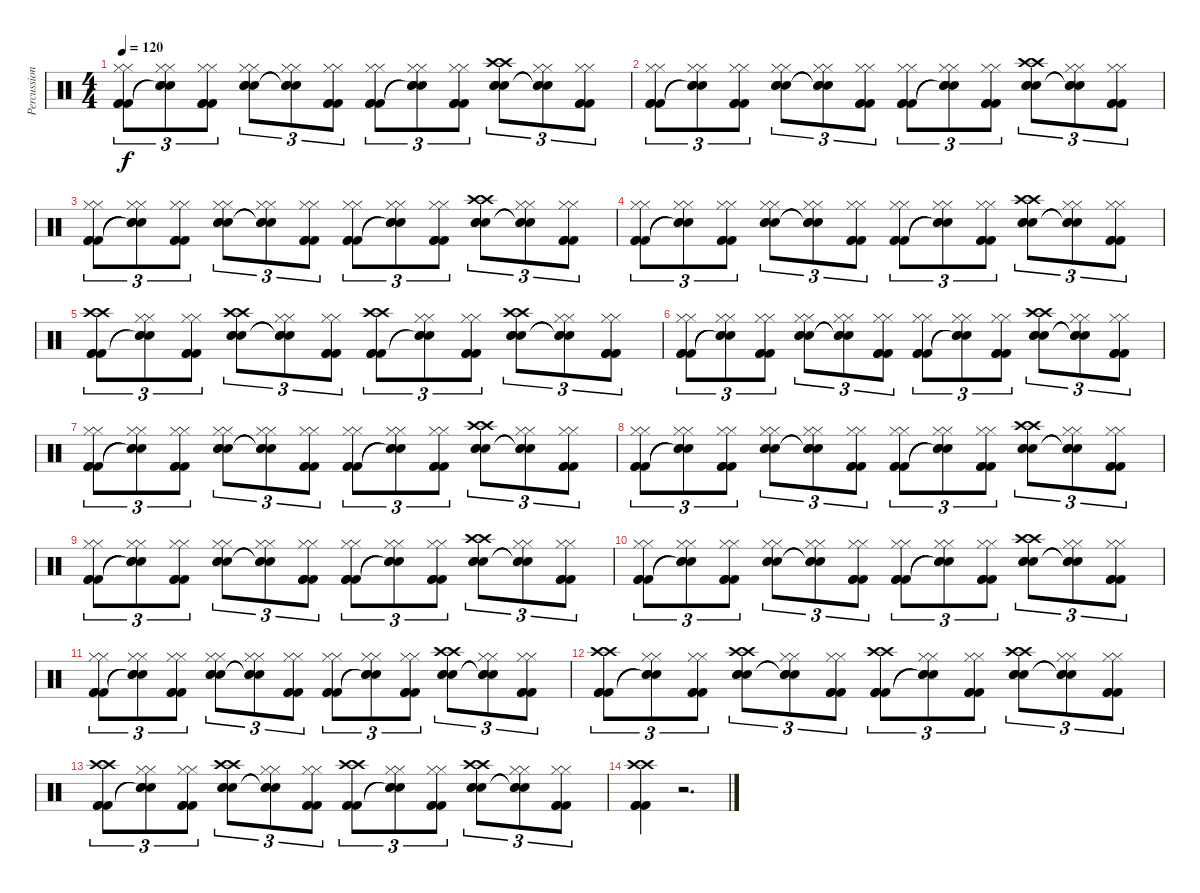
\track ("Percussion" "Percussion") {instrument percussion}
\staff {score}
\articulation defaults
\ts (4 4)
\tempo 120
\clef neutral
\ks c
("Hi-Hat (closed)" "Hi-Hat (closed)" "Kick (hit) 2" "Kick (hit) 2" "Kick (hit) 2").8{tu (3 2) dy f} ("Hi-Hat (closed)" "Hi-Hat (closed)" "Snare (hit)"{t} "Snare (hit)"{t} "Snare (hit)"{t}).8{tu (3 2)} ("Hi-Hat (closed)" "Hi-Hat (closed)" "Kick (hit) 2" "Kick (hit) 2" "Kick (hit) 2").8{tu (3 2)} ("Hi-Hat (closed)" "Hi-Hat (closed)" "Snare (hit) 2" "Snare (hit) 2" "Snare (hit) 2").8{tu (3 2)} ("Hi-Hat (closed)" "Hi-Hat (closed)" "Snare (hit)"{t} "Snare (hit)"{t} "Snare (hit)"{t}).8{tu (3 2)} ("Hi-Hat (closed)" "Hi-Hat (closed)" "Kick (hit) 2" "Kick (hit) 2" "Kick (hit) 2").8{tu (3 2)} ("Hi-Hat (closed)" "Hi-Hat (closed)" "Kick (hit) 2" "Kick (hit) 2" "Kick (hit) 2").8{tu (3 2)} ("Hi-Hat (closed)" "Hi-Hat (closed)" "Snare (hit)"{t} "Snare (hit)"{t} "Snare (hit)"{t}).8{tu (3 2)} ("Hi-Hat (closed)" "Hi-Hat (closed)" "Kick (hit) 2" "Kick (hit) 2" "Kick (hit) 2").8{tu (3 2)} ("Crash high (hit)" "Crash high (hit)" "Snare (hit) 2" "Snare (hit) 2" "Snare (hit) 2").8{tu (3 2)} ("Hi-Hat (closed)" "Hi-Hat (closed)" "Snare (hit)"{t} "Snare (hit)"{t} "Snare (hit)"{t}).8{tu (3 2)} ("Hi-Hat (closed)" "Hi-Hat (closed)" "Kick (hit) 2" "Kick (hit) 2" "Kick (hit) 2").8{tu (3 2)} |
("Hi-Hat (closed)" "Hi-Hat (closed)" "Kick (hit) 2" "Kick (hit) 2" "Kick (hit) 2").8{tu (3 2)} ("Hi-Hat (closed)" "Hi-Hat (closed)" "Snare (hit)"{t} "Snare (hit)"{t} "Snare (hit)"{t}).8{tu (3 2)} ("Hi-Hat (closed)" "Hi-Hat (closed)" "Kick (hit) 2" "Kick (hit) 2" "Kick (hit) 2").8{tu (3 2)} ("Hi-Hat (closed)" "Hi-Hat (closed)" "Snare (hit) 2" "Snare (hit) 2" "Snare (hit) 2").8{tu (3 2)} ("Hi-Hat (closed)" "Hi-Hat (closed)" "Snare (hit)"{t} "Snare (hit)"{t} "Snare (hit)"{t}).8{tu (3 2)} ("Hi-Hat (closed)" "Hi-Hat (closed)" "Kick (hit) 2" "Kick (hit) 2" "Kick (hit) 2").8{tu (3 2)} ("Hi-Hat (closed)" "Hi-Hat (closed)" "Kick (hit) 2" "Kick (hit) 2" "Kick (hit) 2").8{tu (3 2)} ("Hi-Hat (closed)" "Hi-Hat (closed)" "Snare (hit)"{t} "Snare (hit)"{t} "Snare (hit)"{t}).8{tu (3 2)} ("Hi-Hat (closed)" "Hi-Hat (closed)" "Kick (hit) 2" "Kick (hit) 2" "Kick (hit) 2").8{tu (3 2)} ("Crash high (hit)" "Crash high (hit)" "Snare (hit) 2" "Snare (hit) 2" "Snare (hit) 2").8{tu (3 2)} ("Hi-Hat (closed)" "Hi-Hat (closed)" "Snare (hit)"{t} "Snare (hit)"{t} "Snare (hit)"{t}).8{tu (3 2)} ("Hi-Hat (closed)" "Hi-Hat (closed)" "Kick (hit) 2" "Kick (hit) 2" "Kick (hit) 2").8{tu (3 2)} |
("Hi-Hat (closed)" "Hi-Hat (closed)" "Kick (hit) 2" "Kick (hit) 2" "Kick (hit) 2").8{tu (3 2)} ("Hi-Hat (closed)" "Hi-Hat (closed)" "Snare (hit)"{t} "Snare (hit)"{t} "Snare (hit)"{t}).8{tu (3 2)} ("Hi-Hat (closed)" "Hi-Hat (closed)" "Kick (hit) 2" "Kick (hit) 2" "Kick (hit) 2").8{tu (3 2)} ("Hi-Hat (closed)" "Hi-Hat (closed)" "Snare (hit) 2" "Snare (hit) 2" "Snare (hit) 2").8{tu (3 2)} ("Hi-Hat (closed)" "Hi-Hat (closed)" "Snare (hit)"{t} "Snare (hit)"{t} "Snare (hit)"{t}).8{tu (3 2)} ("Hi-Hat (closed)" "Hi-Hat (closed)" "Kick (hit) 2" "Kick (hit) 2" "Kick (hit) 2").8{tu (3 2)} ("Hi-Hat (closed)" "Hi-Hat (closed)" "Kick (hit) 2" "Kick (hit) 2" "Kick (hit) 2").8{tu (3 2)} ("Hi-Hat (closed)" "Hi-Hat (closed)" "Snare (hit)"{t} "Snare (hit)"{t} "Snare (hit)"{t}).8{tu (3 2)} ("Hi-Hat (closed)" "Hi-Hat (closed)" "Kick (hit) 2" "Kick (hit) 2" "Kick (hit) 2").8{tu (3 2)} ("Crash high (hit)" "Crash high (hit)" "Snare (hit) 2" "Snare (hit) 2" "Snare (hit) 2").8{tu (3 2)} ("Hi-Hat (closed)" "Hi-Hat (closed)" "Snare (hit)"{t} "Snare (hit)"{t} "Snare (hit)"{t}).8{tu (3 2)} ("Hi-Hat (closed)" "Hi-Hat (closed)" "Kick (hit) 2" "Kick (hit) 2" "Kick (hit) 2").8{tu (3 2)} |
("Hi-Hat (closed)" "Hi-Hat (closed)" "Kick (hit) 2" "Kick (hit) 2" "Kick (hit) 2").8{tu (3 2)} ("Hi-Hat (closed)" "Hi-Hat (closed)" "Snare (hit)"{t} "Snare (hit)"{t} "Snare (hit)"{t}).8{tu (3 2)} ("Hi-Hat (closed)" "Hi-Hat (closed)" "Kick (hit) 2" "Kick (hit) 2" "Kick (hit) 2").8{tu (3 2)} ("Hi-Hat (closed)" "Hi-Hat (closed)" "Snare (hit) 2" "Snare (hit) 2" "Snare (hit) 2").8{tu (3 2)} ("Hi-Hat (closed)" "Hi-Hat (closed)" "Snare (hit)"{t} "Snare (hit)"{t} "Snare (hit)"{t}).8{tu (3 2)} ("Hi-Hat (closed)" "Hi-Hat (closed)" "Kick (hit) 2" "Kick (hit) 2" "Kick (hit) 2").8{tu (3 2)} ("Hi-Hat (closed)" "Hi-Hat (closed)" "Kick (hit) 2" "Kick (hit) 2" "Kick (hit) 2").8{tu (3 2)} ("Hi-Hat (closed)" "Hi-Hat (closed)" "Snare (hit)"{t} "Snare (hit)"{t} "Snare (hit)"{t}).8{tu (3 2)} ("Hi-Hat (closed)" "Hi-Hat (closed)" "Kick (hit) 2" "Kick (hit) 2" "Kick (hit) 2").8{tu (3 2)} ("Crash high (hit)" "Crash high (hit)" "Snare (hit) 2" "Snare (hit) 2" "Snare (hit) 2").8{tu (3 2)} ("Hi-Hat (closed)" "Hi-Hat (closed)" "Snare (hit)"{t} "Snare (hit)"{t} "Snare (hit)"{t}).8{tu (3 2)} ("Hi-Hat (closed)" "Hi-Hat (closed)" "Kick (hit) 2" "Kick (hit) 2" "Kick (hit) 2").8{tu (3 2)} |
("Crash high (hit)" "Crash high (hit)" "Kick (hit) 2" "Kick (hit) 2" "Kick (hit) 2").8{tu (3 2)} ("Hi-Hat (closed)" "Hi-Hat (closed)" "Snare (hit)"{t} "Snare (hit)"{t} "Snare (hit)"{t}).8{tu (3 2)} ("Hi-Hat (closed)" "Hi-Hat (closed)" "Kick (hit) 2" "Kick (hit) 2" "Kick (hit) 2").8{tu (3 2)} ("Crash high (hit)" "Crash high (hit)" "Snare (hit) 2" "Snare (hit) 2" "Snare (hit) 2").8{tu (3 2)} ("Hi-Hat (closed)" "Hi-Hat (closed)" "Snare (hit)"{t} "Snare (hit)"{t} "Snare (hit)"{t}).8{tu (3 2)} ("Hi-Hat (closed)" "Hi-Hat (closed)" "Kick (hit) 2" "Kick (hit) 2" "Kick (hit) 2").8{tu (3 2)} ("Crash high (hit)" "Crash high (hit)" "Kick (hit) 2" "Kick (hit) 2" "Kick (hit) 2").8{tu (3 2)} ("Hi-Hat (closed)" "Hi-Hat (closed)" "Snare (hit)"{t} "Snare (hit)"{t} "Snare (hit)"{t}).8{tu (3 2)} ("Hi-Hat (closed)" "Hi-Hat (closed)" "Kick (hit) 2" "Kick (hit) 2" "Kick (hit) 2").8{tu (3 2)} ("Crash high (hit)" "Crash high (hit)" "Snare (hit) 2" "Snare (hit) 2" "Snare (hit) 2").8{tu (3 2)} ("Hi-Hat (closed)" "Hi-Hat (closed)" "Snare (hit)"{t} "Snare (hit)"{t} "Snare (hit)"{t}).8{tu (3 2)} ("Hi-Hat (closed)" "Hi-Hat (closed)" "Kick (hit) 2" "Kick (hit) 2" "Kick (hit) 2").8{tu (3 2)} |
("Hi-Hat (closed)" "Hi-Hat (closed)" "Kick (hit) 2" "Kick (hit) 2" "Kick (hit) 2").8{tu (3 2)} ("Hi-Hat (closed)" "Hi-Hat (closed)" "Snare (hit)"{t} "Snare (hit)"{t} "Snare (hit)"{t}).8{tu (3 2)} ("Hi-Hat (closed)" "Hi-Hat (closed)" "Kick (hit) 2" "Kick (hit) 2" "Kick (hit) 2").8{tu (3 2)} ("Hi-Hat (closed)" "Hi-Hat (closed)" "Snare (hit) 2" "Snare (hit) 2" "Snare (hit) 2").8{tu (3 2)} ("Hi-Hat (closed)" "Hi-Hat (closed)" "Snare (hit)"{t} "Snare (hit)"{t} "Snare (hit)"{t}).8{tu (3 2)} ("Hi-Hat (closed)" "Hi-Hat (closed)" "Kick (hit) 2" "Kick (hit) 2" "Kick (hit) 2").8{tu (3 2)} ("Hi-Hat (closed)" "Hi-Hat (closed)" "Kick (hit) 2" "Kick (hit) 2" "Kick (hit) 2").8{tu (3 2)} ("Hi-Hat (closed)" "Hi-Hat (closed)" "Snare (hit)"{t} "Snare (hit)"{t} "Snare (hit)"{t}).8{tu (3 2)} ("Hi-Hat (closed)" "Hi-Hat (closed)" "Kick (hit) 2" "Kick (hit) 2" "Kick (hit) 2").8{tu (3 2)} ("Crash high (hit)" "Crash high (hit)" "Snare (hit) 2" "Snare (hit) 2" "Snare (hit) 2").8{tu (3 2)} ("Hi-Hat (closed)" "Hi-Hat (closed)" "Snare (hit)"{t} "Snare (hit)"{t} "Snare (hit)"{t}).8{tu (3 2)} ("Hi-Hat (closed)" "Hi-Hat (closed)" "Kick (hit) 2" "Kick (hit) 2" "Kick (hit) 2").8{tu (3 2)} |
("Hi-Hat (closed)" "Hi-Hat (closed)" "Kick (hit) 2" "Kick (hit) 2" "Kick (hit) 2").8{tu (3 2)} ("Hi-Hat (closed)" "Hi-Hat (closed)" "Snare (hit)"{t} "Snare (hit)"{t} "Snare (hit)"{t}).8{tu (3 2)} ("Hi-Hat (closed)" "Hi-Hat (closed)" "Kick (hit) 2" "Kick (hit) 2" "Kick (hit) 2").8{tu (3 2)} ("Hi-Hat (closed)" "Hi-Hat (closed)" "Snare (hit) 2" "Snare (hit) 2" "Snare (hit) 2").8{tu (3 2)} ("Hi-Hat (closed)" "Hi-Hat (closed)" "Snare (hit)"{t} "Snare (hit)"{t} "Snare (hit)"{t}).8{tu (3 2)} ("Hi-Hat (closed)" "Hi-Hat (closed)" "Kick (hit) 2" "Kick (hit) 2" "Kick (hit) 2").8{tu (3 2)} ("Hi-Hat (closed)" "Hi-Hat (closed)" "Kick (hit) 2" "Kick (hit) 2" "Kick (hit) 2").8{tu (3 2)} ("Hi-Hat (closed)" "Hi-Hat (closed)" "Snare (hit)"{t} "Snare (hit)"{t} "Snare (hit)"{t}).8{tu (3 2)} ("Hi-Hat (closed)" "Hi-Hat (closed)" "Kick (hit) 2" "Kick (hit) 2" "Kick (hit) 2").8{tu (3 2)} ("Crash high (hit)" "Crash high (hit)" "Snare (hit) 2" "Snare (hit) 2" "Snare (hit) 2").8{tu (3 2)} ("Hi-Hat (closed)" "Hi-Hat (closed)" "Snare (hit)"{t} "Snare (hit)"{t} "Snare (hit)"{t}).8{tu (3 2)} ("Hi-Hat (closed)" "Hi-Hat (closed)" "Kick (hit) 2" "Kick (hit) 2" "Kick (hit) 2").8{tu (3 2)} |
("Hi-Hat (closed)" "Hi-Hat (closed)" "Kick (hit) 2" "Kick (hit) 2" "Kick (hit) 2").8{tu (3 2)} ("Hi-Hat (closed)" "Hi-Hat (closed)" "Snare (hit)"{t} "Snare (hit)"{t} "Snare (hit)"{t}).8{tu (3 2)} ("Hi-Hat (closed)" "Hi-Hat (closed)" "Kick (hit) 2" "Kick (hit) 2" "Kick (hit) 2").8{tu (3 2)} ("Hi-Hat (closed)" "Hi-Hat (closed)" "Snare (hit) 2" "Snare (hit) 2" "Snare (hit) 2").8{tu (3 2)} ("Hi-Hat (closed)" "Hi-Hat (closed)" "Snare (hit)"{t} "Snare (hit)"{t} "Snare (hit)"{t}).8{tu (3 2)} ("Hi-Hat (closed)" "Hi-Hat (closed)" "Kick (hit) 2" "Kick (hit) 2" "Kick (hit) 2").8{tu (3 2)} ("Hi-Hat (closed)" "Hi-Hat (closed)" "Kick (hit) 2" "Kick (hit) 2" "Kick (hit) 2").8{tu (3 2)} ("Hi-Hat (closed)" "Hi-Hat (closed)" "Snare (hit)"{t} "Snare (hit)"{t} "Snare (hit)"{t}).8{tu (3 2)} ("Hi-Hat (closed)" "Hi-Hat (closed)" "Kick (hit) 2" "Kick (hit) 2" "Kick (hit) 2").8{tu (3 2)} ("Crash high (hit)" "Crash high (hit)" "Snare (hit) 2" "Snare (hit) 2" "Snare (hit) 2").8{tu (3 2)} ("Hi-Hat (closed)" "Hi-Hat (closed)" "Snare (hit)"{t} "Snare (hit)"{t} "Snare (hit)"{t}).8{tu (3 2)} ("Hi-Hat (closed)" "Hi-Hat (closed)" "Kick (hit) 2" "Kick (hit) 2" "Kick (hit) 2").8{tu (3 2)} |
("Hi-Hat (closed)" "Hi-Hat (closed)" "Kick (hit) 2" "Kick (hit) 2" "Kick (hit) 2").8{tu (3 2)} ("Hi-Hat (closed)" "Hi-Hat (closed)" "Snare (hit)"{t} "Snare (hit)"{t} "Snare (hit)"{t}).8{tu (3 2)} ("Hi-Hat (closed)" "Hi-Hat (closed)" "Kick (hit) 2" "Kick (hit) 2" "Kick (hit) 2").8{tu (3 2)} ("Hi-Hat (closed)" "Hi-Hat (closed)" "Snare (hit) 2" "Snare (hit) 2" "Snare (hit) 2").8{tu (3 2)} ("Hi-Hat (closed)" "Hi-Hat (closed)" "Snare (hit)"{t} "Snare (hit)"{t} "Snare (hit)"{t}).8{tu (3 2)} ("Hi-Hat (closed)" "Hi-Hat (closed)" "Kick (hit) 2" "Kick (hit) 2" "Kick (hit) 2").8{tu (3 2)} ("Hi-Hat (closed)" "Hi-Hat (closed)" "Kick (hit) 2" "Kick (hit) 2" "Kick (hit) 2").8{tu (3 2)} ("Hi-Hat (closed)" "Hi-Hat (closed)" "Snare (hit)"{t} "Snare (hit)"{t} "Snare (hit)"{t}).8{tu (3 2)} ("Hi-Hat (closed)" "Hi-Hat (closed)" "Kick (hit) 2" "Kick (hit) 2" "Kick (hit) 2").8{tu (3 2)} ("Crash high (hit)" "Crash high (hit)" "Snare (hit) 2" "Snare (hit) 2" "Snare (hit) 2").8{tu (3 2)} ("Hi-Hat (closed)" "Hi-Hat (closed)" "Snare (hit)"{t} "Snare (hit)"{t} "Snare (hit)"{t}).8{tu (3 2)} ("Hi-Hat (closed)" "Hi-Hat (closed)" "Kick (hit) 2" "Kick (hit) 2" "Kick (hit) 2").8{tu (3 2)} |
("Hi-Hat (closed)" "Hi-Hat (closed)" "Kick (hit) 2" "Kick (hit) 2" "Kick (hit) 2").8{tu (3 2)} ("Hi-Hat (closed)" "Hi-Hat (closed)" "Snare (hit)"{t} "Snare (hit)"{t} "Snare (hit)"{t}).8{tu (3 2)} ("Hi-Hat (closed)" "Hi-Hat (closed)" "Kick (hit) 2" "Kick (hit) 2" "Kick (hit) 2").8{tu (3 2)} ("Hi-Hat (closed)" "Hi-Hat (closed)" "Snare (hit) 2" "Snare (hit) 2" "Snare (hit) 2").8{tu (3 2)} ("Hi-Hat (closed)" "Hi-Hat (closed)" "Snare (hit)"{t} "Snare (hit)"{t} "Snare (hit)"{t}).8{tu (3 2)} ("Hi-Hat (closed)" "Hi-Hat (closed)" "Kick (hit) 2" "Kick (hit) 2" "Kick (hit) 2").8{tu (3 2)} ("Hi-Hat (closed)" "Hi-Hat (closed)" "Kick (hit) 2" "Kick (hit) 2" "Kick (hit) 2").8{tu (3 2)} ("Hi-Hat (closed)" "Hi-Hat (closed)" "Snare (hit)"{t} "Snare (hit)"{t} "Snare (hit)"{t}).8{tu (3 2)} ("Hi-Hat (closed)" "Hi-Hat (closed)" "Kick (hit) 2" "Kick (hit) 2" "Kick (hit) 2").8{tu (3 2)} ("Crash high (hit)" "Crash high (hit)" "Snare (hit) 2" "Snare (hit) 2" "Snare (hit) 2").8{tu (3 2)} ("Hi-Hat (closed)" "Hi-Hat (closed)" "Snare (hit)"{t} "Snare (hit)"{t} "Snare (hit)"{t}).8{tu (3 2)} ("Hi-Hat (closed)" "Hi-Hat (closed)" "Kick (hit) 2" "Kick (hit) 2" "Kick (hit) 2").8{tu (3 2)} |
("Hi-Hat (closed)" "Hi-Hat (closed)" "Kick (hit) 2" "Kick (hit) 2" "Kick (hit) 2").8{tu (3 2)} ("Hi-Hat (closed)" "Hi-Hat (closed)" "Snare (hit)"{t} "Snare (hit)"{t} "Snare (hit)"{t}).8{tu (3 2)} ("Hi-Hat (closed)" "Hi-Hat (closed)" "Kick (hit) 2" "Kick (hit) 2" "Kick (hit) 2").8{tu (3 2)} ("Hi-Hat (closed)" "Hi-Hat (closed)" "Snare (hit) 2" "Snare (hit) 2" "Snare (hit) 2").8{tu (3 2)} ("Hi-Hat (closed)" "Hi-Hat (closed)" "Snare (hit)"{t} "Snare (hit)"{t} "Snare (hit)"{t}).8{tu (3 2)} ("Hi-Hat (closed)" "Hi-Hat (closed)" "Kick (hit) 2" "Kick (hit) 2" "Kick (hit) 2").8{tu (3 2)} ("Hi-Hat (closed)" "Hi-Hat (closed)" "Kick (hit) 2" "Kick (hit) 2" "Kick (hit) 2").8{tu (3 2)} ("Hi-Hat (closed)" "Hi-Hat (closed)" "Snare (hit)"{t} "Snare (hit)"{t} "Snare (hit)"{t}).8{tu (3 2)} ("Hi-Hat (closed)" "Hi-Hat (closed)" "Kick (hit) 2" "Kick (hit) 2" "Kick (hit) 2").8{tu (3 2)} ("Crash high (hit)" "Crash high (hit)" "Snare (hit) 2" "Snare (hit) 2" "Snare (hit) 2").8{tu (3 2)} ("Hi-Hat (closed)" "Hi-Hat (closed)" "Snare (hit)"{t} "Snare (hit)"{t} "Snare (hit)"{t}).8{tu (3 2)} ("Hi-Hat (closed)" "Hi-Hat (closed)" "Kick (hit) 2" "Kick (hit) 2" "Kick (hit) 2").8{tu (3 2)} |
("Crash high (hit)" "Crash high (hit)" "Kick (hit) 2" "Kick (hit) 2" "Kick (hit) 2").8{tu (3 2)} ("Hi-Hat (closed)" "Hi-Hat (closed)" "Snare (hit)"{t} "Snare (hit)"{t} "Snare (hit)"{t}).8{tu (3 2)} ("Hi-Hat (closed)" "Hi-Hat (closed)" "Kick (hit) 2" "Kick (hit) 2" "Kick (hit) 2").8{tu (3 2)} ("Crash high (hit)" "Crash high (hit)" "Snare (hit) 2" "Snare (hit) 2" "Snare (hit) 2").8{tu (3 2)} ("Hi-Hat (closed)" "Hi-Hat (closed)" "Snare (hit)"{t} "Snare (hit)"{t} "Snare (hit)"{t}).8{tu (3 2)} ("Hi-Hat (closed)" "Hi-Hat (closed)" "Kick (hit) 2" "Kick (hit) 2" "Kick (hit) 2").8{tu (3 2)} ("Crash high (hit)" "Crash high (hit)" "Kick (hit) 2" "Kick (hit) 2" "Kick (hit) 2").8{tu (3 2)} ("Hi-Hat (closed)" "Hi-Hat (closed)" "Snare (hit)"{t} "Snare (hit)"{t} "Snare (hit)"{t}).8{tu (3 2)} ("Hi-Hat (closed)" "Hi-Hat (closed)" "Kick (hit) 2" "Kick (hit) 2" "Kick (hit) 2").8{tu (3 2)} ("Crash high (hit)" "Crash high (hit)" "Snare (hit) 2" "Snare (hit) 2" "Snare (hit) 2").8{tu (3 2)} ("Hi-Hat (closed)" "Hi-Hat (closed)" "Snare (hit)"{t} "Snare (hit)"{t} "Snare (hit)"{t}).8{tu (3 2)} ("Hi-Hat (closed)" "Hi-Hat (closed)" "Kick (hit) 2" "Kick (hit) 2" "Kick (hit) 2").8{tu (3 2)} |
("Crash high (hit)" "Crash high (hit)" "Kick (hit) 2" "Kick (hit) 2" "Kick (hit) 2").8{tu (3 2)} ("Hi-Hat (closed)" "Hi-Hat (closed)" "Snare (hit)"{t} "Snare (hit)"{t} "Snare (hit)"{t}).8{tu (3 2)} ("Hi-Hat (closed)" "Hi-Hat (closed)" "Kick (hit) 2" "Kick (hit) 2" "Kick (hit) 2").8{tu (3 2)} ("Crash high (hit)" "Crash high (hit)" "Snare (hit) 2" "Snare (hit) 2" "Snare (hit) 2").8{tu (3 2)} ("Hi-Hat (closed)" "Hi-Hat (closed)" "Snare (hit)"{t} "Snare (hit)"{t} "Snare (hit)"{t}).8{tu (3 2)} ("Hi-Hat (closed)" "Hi-Hat (closed)" "Kick (hit) 2" "Kick (hit) 2" "Kick (hit) 2").8{tu (3 2)} ("Crash high (hit)" "Crash high (hit)" "Kick (hit) 2" "Kick (hit) 2" "Kick (hit) 2").8{tu (3 2)} ("Hi-Hat (closed)" "Hi-Hat (closed)" "Snare (hit)"{t} "Snare (hit)"{t} "Snare (hit)"{t}).8{tu (3 2)} ("Hi-Hat (closed)" "Hi-Hat (closed)" "Kick (hit) 2" "Kick (hit) 2" "Kick (hit) 2").8{tu (3 2)} ("Crash high (hit)" "Crash high (hit)" "Snare (hit) 2" "Snare (hit) 2" "Snare (hit) 2").8{tu (3 2)} ("Hi-Hat (closed)" "Hi-Hat (closed)" "Snare (hit)"{t} "Snare (hit)"{t} "Snare (hit)"{t}).8{tu (3 2)} ("Hi-Hat (closed)" "Hi-Hat (closed)" "Kick (hit) 2" "Kick (hit) 2" "Kick (hit) 2").8{tu (3 2)} |
("Crash high (hit)" "Crash high (hit)" "Kick (hit) 2" "Kick (hit) 2" "Kick (hit) 2").4 r.2{d}
